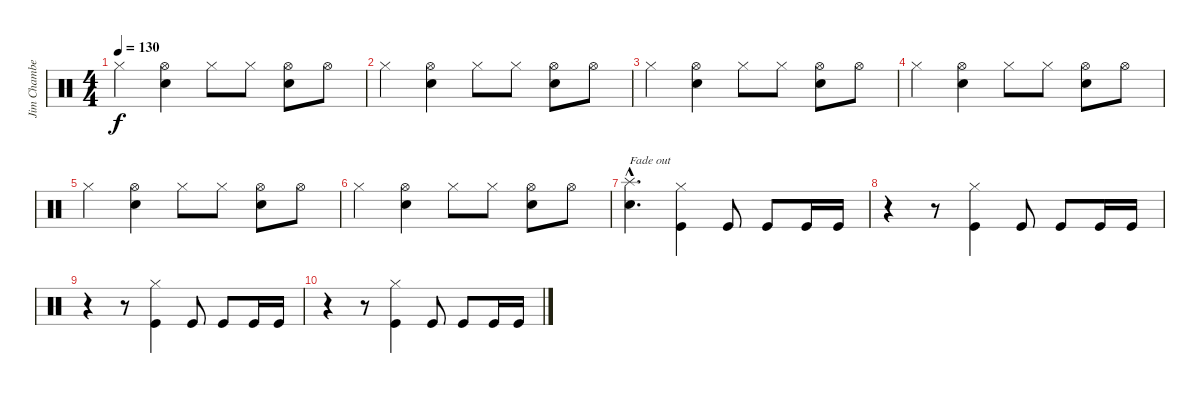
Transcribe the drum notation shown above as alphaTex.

\track ("Jim Chamberlin (Drums)" "Jim Chambe") {instrument percussion}
\staff {score}
\articulation defaults
\ts (4 4)
\tempo 130
\clef neutral
\ks c "Hi-Hat (closed)".4{dy f}
("Snare (hit) 2" "Hi-Hat (open)").4 "Hi-Hat (closed)".8 "Hi-Hat (closed)".8 ("Snare (hit) 2" "Hi-Hat (open)").8 "Hi-Hat (open)".8 |
"Hi-Hat (closed)".4 ("Snare (hit) 2" "Hi-Hat (open)").4 "Hi-Hat (closed)".8 "Hi-Hat (closed)".8 ("Snare (hit) 2" "Hi-Hat (open)").8 "Hi-Hat (open)".8 |
"Hi-Hat (closed)".4 ("Snare (hit) 2" "Hi-Hat (open)").4 "Hi-Hat (closed)".8 "Hi-Hat (closed)".8 ("Snare (hit) 2" "Hi-Hat (open)").8 "Hi-Hat (open)".8 |
"Hi-Hat (closed)".4 ("Snare (hit) 2" "Hi-Hat (open)").4 "Hi-Hat (closed)".8 "Hi-Hat (closed)".8 ("Snare (hit) 2" "Hi-Hat (open)").8 "Hi-Hat (open)".8 |
"Hi-Hat (closed)".4 ("Snare (hit) 2" "Hi-Hat (open)").4 "Hi-Hat (closed)".8 "Hi-Hat (closed)".8 ("Snare (hit) 2" "Hi-Hat (open)").8 "Hi-Hat (open)".8 |
"Hi-Hat (closed)".4 ("Snare (hit) 2" "Hi-Hat (open)").4 "Hi-Hat (closed)".8 "Hi-Hat (closed)".8 ("Snare (hit) 2" "Hi-Hat (open)").8 "Hi-Hat (open)".8 |
("Splash (hit)"{hac} "Snare (hit) 2"{hac}).4{d txt "Fade out"} ("Kick (hit)" "Hi-Hat (closed)").4 "Kick (hit)".8 "Kick (hit)".8 "Kick (hit)".16 "Kick (hit)".16 |
r.4 r.8 ("Kick (hit)" "Hi-Hat (closed)").4 "Kick (hit)".8 "Kick (hit)".8 "Kick (hit)".16 "Kick (hit)".16 |
r.4 r.8 ("Kick (hit)" "Hi-Hat (closed)").4 "Kick (hit)".8 "Kick (hit)".8 "Kick (hit)".16 "Kick (hit)".16 |
r.4 r.8 ("Kick (hit)" "Hi-Hat (closed)").4 "Kick (hit)".8 "Kick (hit)".8 "Kick (hit)".16 "Kick (hit)".16
